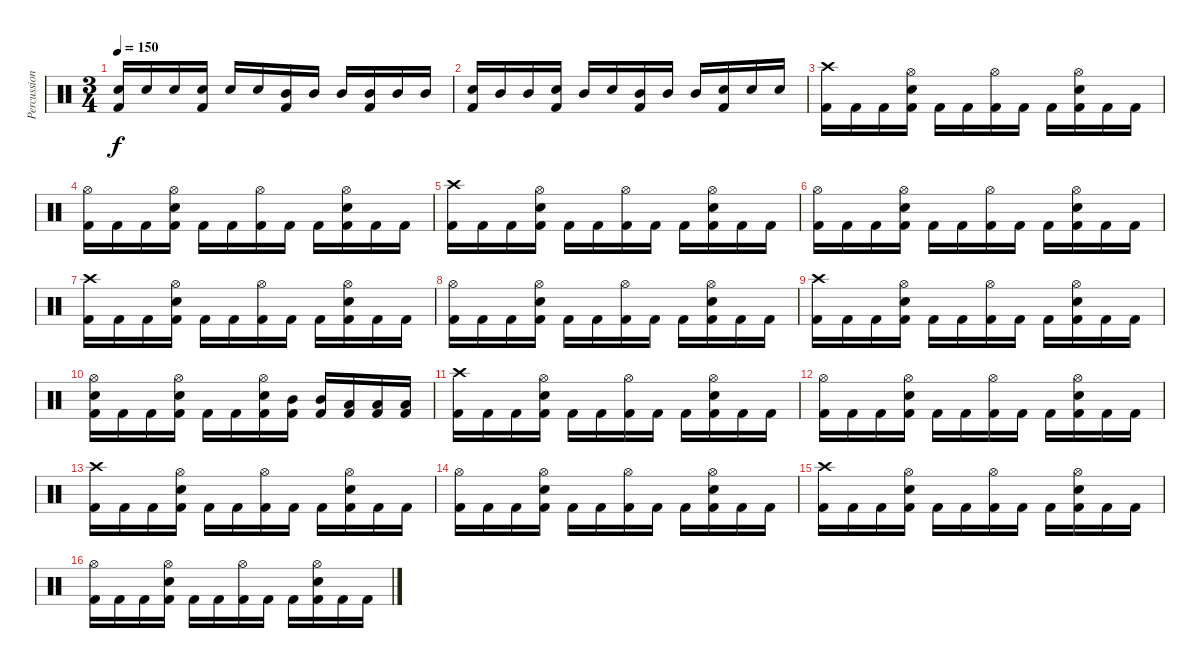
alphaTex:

\track ("Percussion" "Percussion") {instrument percussion}
\staff {score}
\articulation defaults
\ts (3 4)
\tempo 150
\clef neutral
\ks c
("Electric Snare (hit)" "Kick (hit) 2").16{dy f} "Electric Snare (hit)".16 "Electric Snare (hit)".16 ("Electric Snare (hit)" "Kick (hit) 2").16 "Electric Snare (hit)".16 "Electric Snare (hit)".16 ("Mid Tom (hit)" "Kick (hit) 2").16 "Mid Tom (hit)".16 "Mid Tom (hit)".16 ("Mid Tom (hit)" "Kick (hit) 2").16 "Mid Tom (hit)".16 "Mid Tom (hit)".16 |
("Electric Snare (hit)" "Kick (hit) 2").16 "Mid Tom (hit)".16 "Mid Tom (hit)".16 ("Electric Snare (hit)" "Kick (hit) 2").16 "Mid Tom (hit)".16 "Electric Snare (hit)".16 ("Mid Tom (hit)" "Kick (hit) 2").16 "Mid Tom (hit)".16 "Mid Tom (hit)".16 ("Electric Snare (hit)" "Kick (hit) 2").16 "Electric Snare (hit)".16 "Electric Snare (hit)".16 |
("Crash high (hit)" "Kick (hit) 2").16 "Kick (hit) 2".16 "Kick (hit) 2".16 ("Hi-Hat (open)" "Electric Snare (hit)" "Kick (hit) 2").16 "Kick (hit) 2".16 "Kick (hit) 2".16 ("Hi-Hat (open)" "Kick (hit) 2").16 "Kick (hit) 2".16 "Kick (hit) 2".16 ("Hi-Hat (open)" "Electric Snare (hit)" "Kick (hit) 2").16 "Kick (hit) 2".16 "Kick (hit) 2".16 |
("Hi-Hat (open)" "Kick (hit) 2").16 "Kick (hit) 2".16 "Kick (hit) 2".16 ("Hi-Hat (open)" "Electric Snare (hit)" "Kick (hit) 2").16 "Kick (hit) 2".16 "Kick (hit) 2".16 ("Hi-Hat (open)" "Kick (hit) 2").16 "Kick (hit) 2".16 "Kick (hit) 2".16 ("Hi-Hat (open)" "Electric Snare (hit)" "Kick (hit) 2").16 "Kick (hit) 2".16 "Kick (hit) 2".16 |
("Crash high (hit)" "Kick (hit) 2").16 "Kick (hit) 2".16 "Kick (hit) 2".16 ("Hi-Hat (open)" "Electric Snare (hit)" "Kick (hit) 2").16 "Kick (hit) 2".16 "Kick (hit) 2".16 ("Hi-Hat (open)" "Kick (hit) 2").16 "Kick (hit) 2".16 "Kick (hit) 2".16 ("Hi-Hat (open)" "Electric Snare (hit)" "Kick (hit) 2").16 "Kick (hit) 2".16 "Kick (hit) 2".16 |
("Hi-Hat (open)" "Kick (hit) 2").16 "Kick (hit) 2".16 "Kick (hit) 2".16 ("Hi-Hat (open)" "Electric Snare (hit)" "Kick (hit) 2").16 "Kick (hit) 2".16 "Kick (hit) 2".16 ("Hi-Hat (open)" "Kick (hit) 2").16 "Kick (hit) 2".16 "Kick (hit) 2".16 ("Hi-Hat (open)" "Electric Snare (hit)" "Kick (hit) 2").16 "Kick (hit) 2".16 "Kick (hit) 2".16 |
("Crash high (hit)" "Kick (hit) 2").16 "Kick (hit) 2".16 "Kick (hit) 2".16 ("Hi-Hat (open)" "Electric Snare (hit)" "Kick (hit) 2").16 "Kick (hit) 2".16 "Kick (hit) 2".16 ("Hi-Hat (open)" "Kick (hit) 2").16 "Kick (hit) 2".16 "Kick (hit) 2".16 ("Hi-Hat (open)" "Electric Snare (hit)" "Kick (hit) 2").16 "Kick (hit) 2".16 "Kick (hit) 2".16 |
("Hi-Hat (open)" "Kick (hit) 2").16 "Kick (hit) 2".16 "Kick (hit) 2".16 ("Hi-Hat (open)" "Electric Snare (hit)" "Kick (hit) 2").16 "Kick (hit) 2".16 "Kick (hit) 2".16 ("Hi-Hat (open)" "Kick (hit) 2").16 "Kick (hit) 2".16 "Kick (hit) 2".16 ("Hi-Hat (open)" "Electric Snare (hit)" "Kick (hit) 2").16 "Kick (hit) 2".16 "Kick (hit) 2".16 |
("Crash high (hit)" "Kick (hit) 2").16 "Kick (hit) 2".16 "Kick (hit) 2".16 ("Hi-Hat (open)" "Electric Snare (hit)" "Kick (hit) 2").16 "Kick (hit) 2".16 "Kick (hit) 2".16 ("Hi-Hat (open)" "Kick (hit) 2").16 "Kick (hit) 2".16 "Kick (hit) 2".16 ("Hi-Hat (open)" "Electric Snare (hit)" "Kick (hit) 2").16 "Kick (hit) 2".16 "Kick (hit) 2".16 |
("Hi-Hat (open)" "Electric Snare (hit)" "Kick (hit) 2").16 "Kick (hit) 2".16 "Kick (hit) 2".16 ("Hi-Hat (open)" "Electric Snare (hit)" "Kick (hit) 2").16 "Kick (hit) 2".16 "Kick (hit) 2".16 ("Hi-Hat (open)" "Electric Snare (hit)" "Kick (hit) 2").16 ("Mid Tom (hit)" "Kick (hit) 2").16 ("Mid Tom (hit)" "Kick (hit) 2").16 ("Low Tom (hit)" "Kick (hit) 2").16 ("Low Tom (hit)" "Kick (hit) 2").16 ("Low Tom (hit)" "Kick (hit) 2").16 |
("Crash high (hit)" "Kick (hit) 2").16 "Kick (hit) 2".16 "Kick (hit) 2".16 ("Hi-Hat (open)" "Electric Snare (hit)" "Kick (hit) 2").16 "Kick (hit) 2".16 "Kick (hit) 2".16 ("Hi-Hat (open)" "Kick (hit) 2").16 "Kick (hit) 2".16 "Kick (hit) 2".16 ("Hi-Hat (open)" "Electric Snare (hit)" "Kick (hit) 2").16 "Kick (hit) 2".16 "Kick (hit) 2".16 |
("Hi-Hat (open)" "Kick (hit) 2").16 "Kick (hit) 2".16 "Kick (hit) 2".16 ("Hi-Hat (open)" "Electric Snare (hit)" "Kick (hit) 2").16 "Kick (hit) 2".16 "Kick (hit) 2".16 ("Hi-Hat (open)" "Kick (hit) 2").16 "Kick (hit) 2".16 "Kick (hit) 2".16 ("Hi-Hat (open)" "Electric Snare (hit)" "Kick (hit) 2").16 "Kick (hit) 2".16 "Kick (hit) 2".16 |
("Crash high (hit)" "Kick (hit) 2").16 "Kick (hit) 2".16 "Kick (hit) 2".16 ("Hi-Hat (open)" "Electric Snare (hit)" "Kick (hit) 2").16 "Kick (hit) 2".16 "Kick (hit) 2".16 ("Hi-Hat (open)" "Kick (hit) 2").16 "Kick (hit) 2".16 "Kick (hit) 2".16 ("Hi-Hat (open)" "Electric Snare (hit)" "Kick (hit) 2").16 "Kick (hit) 2".16 "Kick (hit) 2".16 |
("Hi-Hat (open)" "Kick (hit) 2").16 "Kick (hit) 2".16 "Kick (hit) 2".16 ("Hi-Hat (open)" "Electric Snare (hit)" "Kick (hit) 2").16 "Kick (hit) 2".16 "Kick (hit) 2".16 ("Hi-Hat (open)" "Kick (hit) 2").16 "Kick (hit) 2".16 "Kick (hit) 2".16 ("Hi-Hat (open)" "Electric Snare (hit)" "Kick (hit) 2").16 "Kick (hit) 2".16 "Kick (hit) 2".16 |
("Crash high (hit)" "Kick (hit) 2").16 "Kick (hit) 2".16 "Kick (hit) 2".16 ("Hi-Hat (open)" "Electric Snare (hit)" "Kick (hit) 2").16 "Kick (hit) 2".16 "Kick (hit) 2".16 ("Hi-Hat (open)" "Kick (hit) 2").16 "Kick (hit) 2".16 "Kick (hit) 2".16 ("Hi-Hat (open)" "Electric Snare (hit)" "Kick (hit) 2").16 "Kick (hit) 2".16 "Kick (hit) 2".16 |
("Hi-Hat (open)" "Kick (hit) 2").16 "Kick (hit) 2".16 "Kick (hit) 2".16 ("Hi-Hat (open)" "Electric Snare (hit)" "Kick (hit) 2").16 "Kick (hit) 2".16 "Kick (hit) 2".16 ("Hi-Hat (open)" "Kick (hit) 2").16 "Kick (hit) 2".16 "Kick (hit) 2".16 ("Hi-Hat (open)" "Electric Snare (hit)" "Kick (hit) 2").16 "Kick (hit) 2".16 "Kick (hit) 2".16
